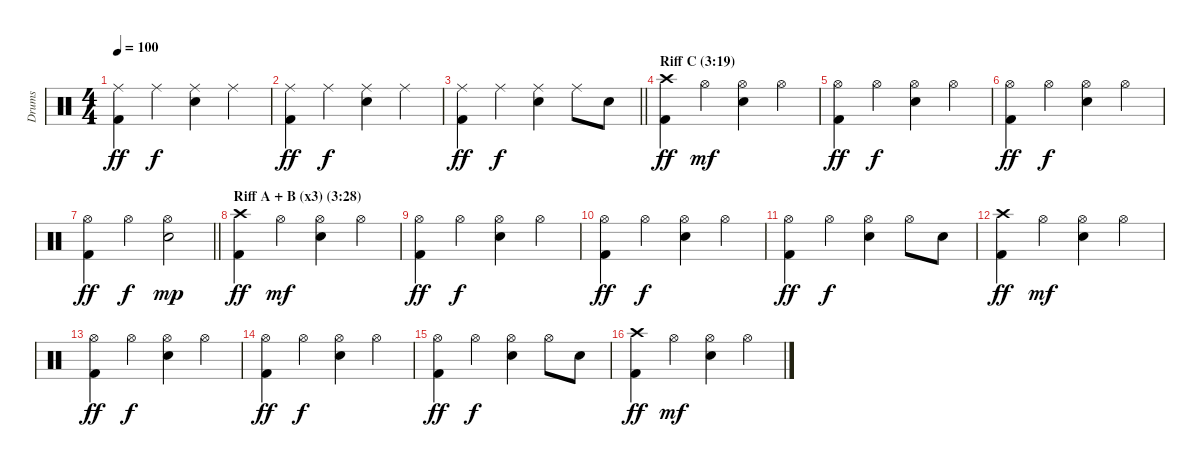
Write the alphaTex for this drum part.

\track ("Drums" "Drums") {instrument percussion}
\staff {score}
\articulation defaults
\ts (4 4)
\tempo 100
\clef neutral
\ks c
("Ride (middle)" "Kick (hit) 2").4{dy ff} "Ride (middle)".4{dy f} ("Ride (middle)" "Electric Snare (hit)").4 "Ride (middle)".4 |
("Ride (middle)" "Kick (hit) 2").4{dy ff} "Ride (middle)".4{dy f} ("Ride (middle)" "Electric Snare (hit)").4 "Ride (middle)".4 |
\barLineRight lightlight
("Ride (middle)" "Kick (hit) 2").4{dy ff} "Ride (middle)".4{dy f} ("Ride (middle)" "Electric Snare (hit)").4 "Ride (middle)".8 "Electric Snare (hit)".8 |
\section ("" "Riff C (3:19)")
("Crash high (hit)" "Kick (hit) 2").4{dy ff} "Hi-Hat (open)".4{dy mf} ("Hi-Hat (open)" "Electric Snare (hit)").4 "Hi-Hat (open)".4 |
("Hi-Hat (open)" "Kick (hit) 2").4{dy ff} "Hi-Hat (open)".4{dy f} ("Hi-Hat (open)" "Electric Snare (hit)").4 "Hi-Hat (open)".4 |
("Hi-Hat (open)" "Kick (hit) 2").4{dy ff} "Hi-Hat (open)".4{dy f} ("Hi-Hat (open)" "Electric Snare (hit)").4 "Hi-Hat (open)".4 |
\barLineRight lightlight
("Hi-Hat (open)" "Kick (hit) 2").4{dy ff} "Hi-Hat (open)".4{dy f} ("Hi-Hat (open)" "Electric Snare (hit)").2{dy mp} |
\section ("" "Riff A + B (x3) (3:28)")
("Crash high (hit)" "Kick (hit) 2").4{dy ff} "Hi-Hat (open)".4{dy mf} ("Hi-Hat (open)" "Electric Snare (hit)").4 "Hi-Hat (open)".4 |
("Hi-Hat (open)" "Kick (hit) 2").4{dy ff} "Hi-Hat (open)".4{dy f} ("Hi-Hat (open)" "Electric Snare (hit)").4 "Hi-Hat (open)".4 |
("Hi-Hat (open)" "Kick (hit) 2").4{dy ff} "Hi-Hat (open)".4{dy f} ("Hi-Hat (open)" "Electric Snare (hit)").4 "Hi-Hat (open)".4 |
("Hi-Hat (open)" "Kick (hit) 2").4{dy ff} "Hi-Hat (open)".4{dy f} ("Hi-Hat (open)" "Electric Snare (hit)").4 "Hi-Hat (open)".8 "Electric Snare (hit)".8 |
("Crash high (hit)" "Kick (hit) 2").4{dy ff} "Hi-Hat (open)".4{dy mf} ("Hi-Hat (open)" "Electric Snare (hit)").4 "Hi-Hat (open)".4 |
("Hi-Hat (open)" "Kick (hit) 2").4{dy ff} "Hi-Hat (open)".4{dy f} ("Hi-Hat (open)" "Electric Snare (hit)").4 "Hi-Hat (open)".4 |
("Hi-Hat (open)" "Kick (hit) 2").4{dy ff} "Hi-Hat (open)".4{dy f} ("Hi-Hat (open)" "Electric Snare (hit)").4 "Hi-Hat (open)".4 |
("Hi-Hat (open)" "Kick (hit) 2").4{dy ff} "Hi-Hat (open)".4{dy f} ("Hi-Hat (open)" "Electric Snare (hit)").4 "Hi-Hat (open)".8 "Electric Snare (hit)".8 |
("Crash high (hit)" "Kick (hit) 2").4{dy ff} "Hi-Hat (open)".4{dy mf} ("Hi-Hat (open)" "Electric Snare (hit)").4 "Hi-Hat (open)".4
